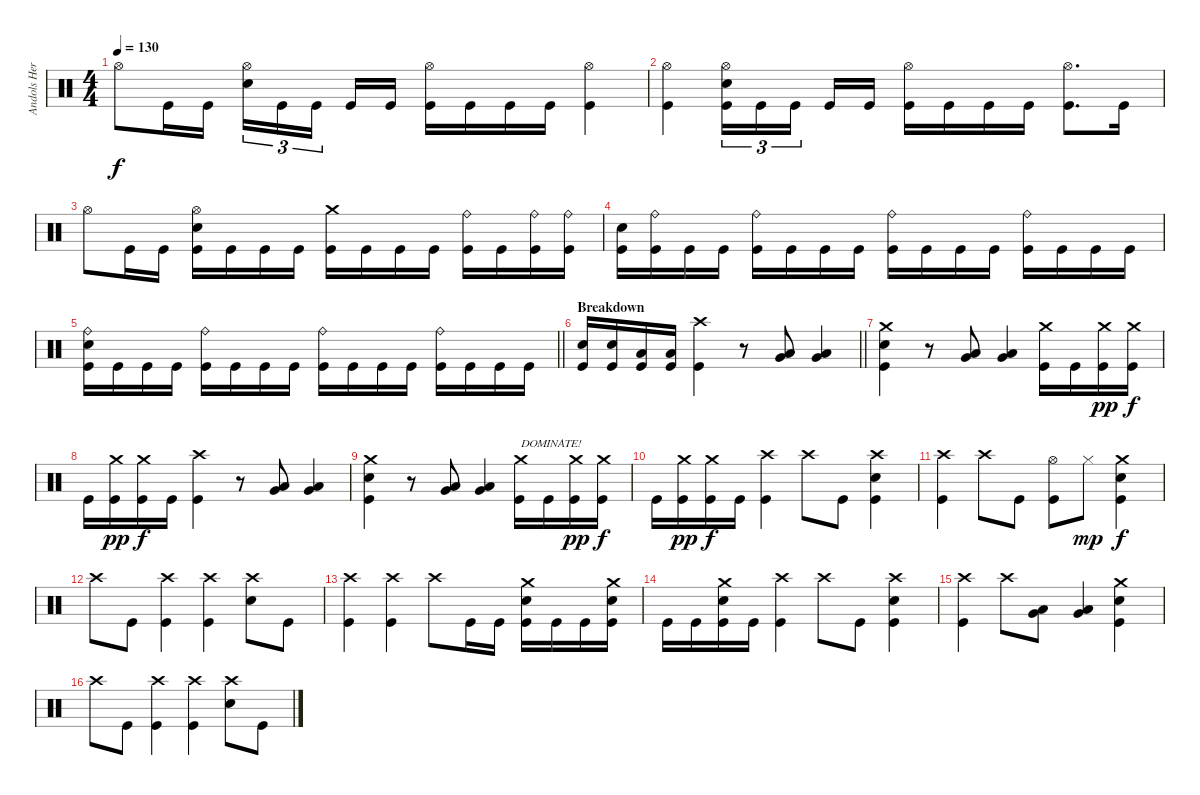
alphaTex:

\track ("Andols Herrick" "Andols Her") {instrument percussion}
\staff {score}
\articulation defaults
\ts (4 4)
\tempo 130
\clef neutral
\ks c "Hi-Hat (open)".8{dy f} "Kick (hit)".16 "Kick (hit)".16
("Hi-Hat (open)" "Electric Snare (hit)").16{tu (3 2)} "Kick (hit)".16{tu (3 2)} "Kick (hit)".16{tu (3 2) beam splitsecondary} "Kick (hit)".16 "Kick (hit)".16 ("Hi-Hat (open)" "Kick (hit)").16 "Kick (hit)".16 "Kick (hit)".16 "Kick (hit)".16 ("Hi-Hat (open)" "Kick (hit)").4 |
("Hi-Hat (open)" "Kick (hit)").4 ("Hi-Hat (open)" "Electric Snare (hit)" "Kick (hit)").16{tu (3 2)} "Kick (hit)".16{tu (3 2)} "Kick (hit)".16{tu (3 2) beam splitsecondary} "Kick (hit)".16 "Kick (hit)".16 ("Hi-Hat (open)" "Kick (hit)").16 "Kick (hit)".16 "Kick (hit)".16 "Kick (hit)".16 ("Hi-Hat (open)" "Kick (hit)").8{d} "Kick (hit)".16 |
"Hi-Hat (open)".8 "Kick (hit)".16 "Kick (hit)".16 ("Hi-Hat (open)" "Electric Snare (hit)" "Kick (hit)").16 "Kick (hit)".16 "Kick (hit)".16 "Kick (hit)".16 ("Crash medium (hit)" "Kick (hit)").16 "Kick (hit)".16 "Kick (hit)".16 "Kick (hit)".16 ("Ride (bell)" "Kick (hit)").16 "Kick (hit)".16 ("Ride (bell)" "Kick (hit)").16 ("Ride (bell)" "Kick (hit)").16 |
("Electric Snare (hit)" "Kick (hit)").16 ("Ride (bell)" "Kick (hit)").16 "Kick (hit)".16 "Kick (hit)".16 ("Ride (bell)" "Kick (hit)").16 "Kick (hit)".16 "Kick (hit)".16 "Kick (hit)".16 ("Ride (bell)" "Kick (hit)").16 "Kick (hit)".16 "Kick (hit)".16 "Kick (hit)".16 ("Ride (bell)" "Kick (hit)").16 "Kick (hit)".16 "Kick (hit)".16 "Kick (hit)".16 |
\barLineRight lightlight
("Ride (bell)" "Electric Snare (hit)" "Kick (hit)").16 "Kick (hit)".16 "Kick (hit)".16 "Kick (hit)".16 ("Ride (bell)" "Kick (hit)").16 "Kick (hit)".16 "Kick (hit)".16 "Kick (hit)".16 ("Ride (bell)" "Kick (hit)").16 "Kick (hit)".16 "Kick (hit)".16 "Kick (hit)".16 ("Ride (bell)" "Kick (hit)").16 "Kick (hit)".16 "Kick (hit)".16 "Kick (hit)".16 |
\section ("" "Breakdown")
\barLineRight lightlight
("Electric Snare (hit)" "Kick (hit)").16 ("Electric Snare (hit)" "Kick (hit)").16 ("Low Tom (hit)" "Kick (hit)").16 ("Low Tom (hit)" "Kick (hit)").16 ("Crash high (hit)" "Kick (hit)").4 r.8 ("Low Tom (hit)" "Very Low Tom (hit)").8 ("Very Low Tom (hit)" "Low Floor Tom (hit)").4 |
("Crash medium (hit)" "Electric Snare (hit)" "Kick (hit)").4 r.8 ("Low Tom (hit)" "Very Low Tom (hit)").8 ("Very Low Tom (hit)" "Low Floor Tom (hit)").4 ("Crash medium (hit)" "Kick (hit)").16 "Kick (hit)".16 ("Crash medium (hit)" "Kick (hit)").16{dy pp} ("Crash medium (hit)" "Kick (hit)").16{dy f} |
"Kick (hit)".16 ("Crash medium (hit)" "Kick (hit)").16{dy pp} ("Crash medium (hit)" "Kick (hit)").16{dy f} "Kick (hit)".16 ("Crash high (hit)" "Kick (hit)").4 r.8 ("Low Tom (hit)" "Very Low Tom (hit)").8 ("Very Low Tom (hit)" "Low Floor Tom (hit)").4 |
("Crash medium (hit)" "Electric Snare (hit)" "Kick (hit)").4 r.8 ("Low Tom (hit)" "Very Low Tom (hit)").8 ("Very Low Tom (hit)" "Low Floor Tom (hit)").4 ("Crash medium (hit)" "Kick (hit)").16{txt "DOMINATE!"} "Kick (hit)".16 ("Crash medium (hit)" "Kick (hit)").16{dy pp} ("Crash medium (hit)" "Kick (hit)").16{dy f} |
"Kick (hit)".16 ("Crash medium (hit)" "Kick (hit)").16{dy pp} ("Crash medium (hit)" "Kick (hit)").16{dy f} "Kick (hit)".16 ("Crash high (hit)" "Kick (hit)").4 "Crash high (hit)".8 "Kick (hit)".8 ("Crash high (hit)" "Electric Snare (hit)" "Kick (hit)").4 |
("Crash high (hit)" "Kick (hit)").4 "Crash high (hit)".8 "Kick (hit)".8 ("Hi-Hat (open)" "Kick (hit)").8 "Hi-Hat (closed)".8{dy mp} ("Crash medium (hit)" "Electric Snare (hit)" "Kick (hit)").4{dy f} |
"Crash high (hit)".8 "Kick (hit)".8 ("Crash high (hit)" "Kick (hit)").4 ("Crash high (hit)" "Kick (hit)").4 ("Crash high (hit)" "Electric Snare (hit)").8 "Kick (hit)".8 |
("Crash high (hit)" "Kick (hit)").4 ("Crash high (hit)" "Kick (hit)").4 "Crash high (hit)".8 "Kick (hit)".16 "Kick (hit)".16 ("Crash medium (hit)" "Electric Snare (hit)" "Kick (hit)").16 "Kick (hit)".16 "Kick (hit)".16 ("Crash medium (hit)" "Electric Snare (hit)" "Kick (hit)").16 |
"Kick (hit)".16 "Kick (hit)".16 ("Crash medium (hit)" "Electric Snare (hit)" "Kick (hit)").16 "Kick (hit)".16 ("Crash high (hit)" "Kick (hit)").4 "Crash high (hit)".8 "Kick (hit)".8 ("Crash high (hit)" "Electric Snare (hit)" "Kick (hit)").4 |
("Crash high (hit)" "Kick (hit)").4 "Crash high (hit)".8 ("Low Tom (hit)" "Very Low Tom (hit)").8 ("Very Low Tom (hit)" "Low Floor Tom (hit)").4 ("Crash medium (hit)" "Electric Snare (hit)" "Kick (hit)").4 |
"Crash high (hit)".8 "Kick (hit)".8 ("Crash high (hit)" "Kick (hit)").4 ("Crash high (hit)" "Kick (hit)").4 ("Crash high (hit)" "Electric Snare (hit)").8 "Kick (hit)".8
